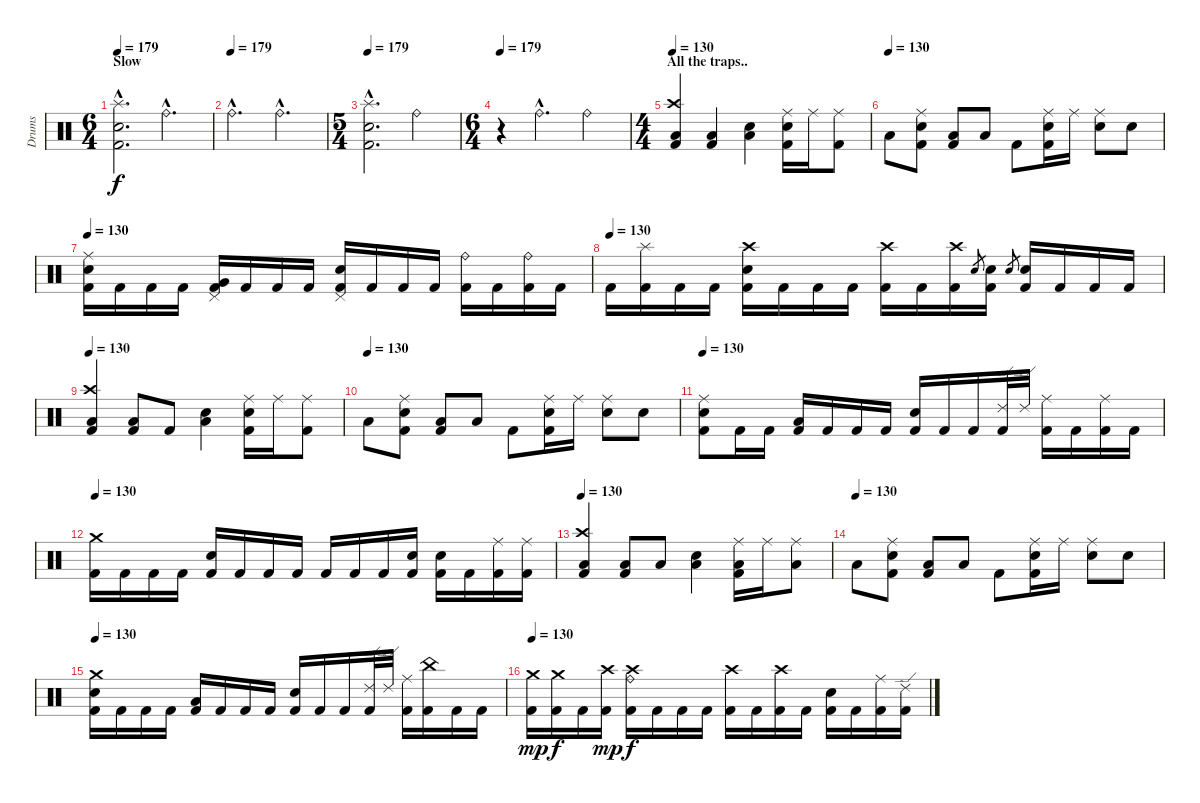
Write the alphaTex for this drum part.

\track ("Drums" "Drums") {instrument percussion}
\staff {score}
\articulation defaults
\ts (6 4)
\section ("" "Slow")
\tempo 179
\clef neutral
\ks c
("Splash (hit)"{hac} "Kick (hit) 2"{hac} "Electric Snare (hit)"{hac}).2{d dy f} "Ride (bell)"{hac}.2{d} |
\tempo (179)
"Ride (bell)"{hac}.2{d} "Ride (bell)"{hac}.2{d} |
\ts (5 4)
\tempo 179
("Splash (hit)"{hac} "Kick (hit) 2"{hac} "Electric Snare (hit)"{hac}).2{d} "Ride (bell)".2 |
\ts (6 4)
\tempo 179
r.4 "Ride (bell)"{hac}.2{d} "Ride (bell)".2 |
\ts (4 4)
\section ("" "All the traps..")
\tempo 130
("Crash high (hit)" "Low Floor Tom (hit)" "Kick (hit) 2").4 ("Low Floor Tom (hit)" "Kick (hit) 2").4 ("Electric Snare (hit)" "Low Floor Tom (hit)").4 ("Ride (middle)" "Electric Snare (hit)" "Kick (hit) 2").16 "Ride (middle)".16 ("Ride (middle)" "Kick (hit) 2").8 |
\tempo (130)
"Low Floor Tom (hit)".8 ("Ride (middle)" "Electric Snare (hit)" "Kick (hit) 2").8 ("Low Floor Tom (hit)" "Kick (hit) 2").8 "Low Floor Tom (hit)".8 "Kick (hit) 2".8 ("Ride (middle)" "Electric Snare (hit)" "Kick (hit) 2").16 "Ride (middle)".16 ("Ride (middle)" "Electric Snare (hit)").8 "Electric Snare (hit)".8 |
\tempo 130
("Ride (middle)" "Electric Snare (hit)" "Kick (hit) 2").16 "Kick (hit) 2".16 "Kick (hit) 2".16 "Kick (hit) 2".16 ("Pedal Hi-Hat (hit)" "Very Low Tom (hit)" "Kick (hit) 2").16 "Kick (hit) 2".16 "Kick (hit) 2".16 "Kick (hit) 2".16 ("Pedal Hi-Hat (hit)" "Electric Snare (hit)" "Kick (hit) 2").16 "Kick (hit) 2".16 "Kick (hit) 2".16 "Kick (hit) 2".16 ("Ride (bell)" "Kick (hit) 2").16 "Kick (hit) 2".16 ("Ride (bell)" "Kick (hit) 2").16 "Kick (hit) 2".16 |
\tempo (130)
"Kick (hit) 2".16 ("Splash (hit)" "Kick (hit) 2").16 "Kick (hit) 2".16 "Kick (hit) 2".16 ("Electric Snare (hit)" "Crash high (hit)" "Kick (hit) 2").16 "Kick (hit) 2".16 "Kick (hit) 2".16 "Kick (hit) 2".16 ("Crash high (hit)" "Kick (hit) 2").16 "Kick (hit) 2".16 ("Crash high (hit)" "Kick (hit) 2").16 "Electric Snare (hit)".8{gr} ("Electric Snare (hit)" "Kick (hit) 2").16 "Electric Snare (hit)".8{gr} ("Electric Snare (hit)" "Kick (hit) 2").16 "Kick (hit) 2".16 "Kick (hit) 2".16 "Kick (hit) 2".16 |
\tempo 130
("Crash high (hit)" "Low Floor Tom (hit)" "Kick (hit) 2").4 ("Low Floor Tom (hit)" "Kick (hit) 2").8 "Kick (hit) 2".8 ("Electric Snare (hit)" "Low Floor Tom (hit)").4 ("Ride (middle)" "Electric Snare (hit)" "Kick (hit) 2").16 "Ride (middle)".16 ("Ride (middle)" "Kick (hit) 2").8 |
\tempo (130)
"Low Floor Tom (hit)".8 ("Ride (middle)" "Electric Snare (hit)" "Kick (hit) 2").8 ("Low Floor Tom (hit)" "Kick (hit) 2").8 "Low Floor Tom (hit)".8 "Kick (hit) 2".8 ("Ride (middle)" "Electric Snare (hit)" "Kick (hit) 2").16 "Ride (middle)".16 ("Ride (middle)" "Electric Snare (hit)").8 "Electric Snare (hit)".8 |
\tempo 130
("Ride (middle)" "Electric Snare (hit)" "Kick (hit) 2").8 "Kick (hit) 2".16 "Kick (hit) 2".16 ("Low Tom (hit)" "Kick (hit) 2").16 "Kick (hit) 2".16 "Kick (hit) 2".16 "Kick (hit) 2".16 ("Electric Snare (hit)" "Kick (hit) 2").16 "Kick (hit) 2".16 "Kick (hit) 2".16 ("Ride (edge) 2" "Kick (hit) 2").32 "Ride (edge) 2".32 ("Ride (middle)" "Kick (hit) 2").16 "Kick (hit) 2".16 ("Ride (middle)" "Kick (hit) 2").16 "Kick (hit) 2".16 |
\tempo 130
("Crash medium (hit)" "Kick (hit) 2").16 "Kick (hit) 2".16 "Kick (hit) 2".16 "Kick (hit) 2".16 ("Electric Snare (hit)" "Kick (hit) 2").16 "Kick (hit) 2".16 "Kick (hit) 2".16 "Kick (hit) 2".16 "Kick (hit) 2".16 "Kick (hit) 2".16 "Kick (hit) 2".16 ("Electric Snare (hit)" "Kick (hit) 2").16 ("Electric Snare (hit)" "Kick (hit) 2").16 "Kick (hit) 2".16 ("Ride (middle)" "Kick (hit) 2").16 ("Ride (middle)" "Kick (hit) 2").16 |
\tempo 130
("Crash high (hit)" "Low Floor Tom (hit)" "Kick (hit) 2").4 ("Low Floor Tom (hit)" "Kick (hit) 2").8 "Low Floor Tom (hit)".8 ("Electric Snare (hit)" "Low Floor Tom (hit)").4 ("Ride (middle)" "Low Floor Tom (hit)" "Kick (hit) 2").16 "Ride (middle)".16 ("Ride (middle)" "Low Floor Tom (hit)").8 |
\tempo (130)
"Low Floor Tom (hit)".8 ("Ride (middle)" "Electric Snare (hit)" "Kick (hit) 2").8 ("Low Floor Tom (hit)" "Kick (hit) 2").8 "Low Floor Tom (hit)".8 "Kick (hit) 2".8 ("Ride (middle)" "Electric Snare (hit)" "Kick (hit) 2").16 "Ride (middle)".16 ("Ride (middle)" "Electric Snare (hit)").8 "Electric Snare (hit)".8 |
\tempo 130
("Crash medium (hit)" "Electric Snare (hit)" "Kick (hit) 2").16 "Kick (hit) 2".16 "Kick (hit) 2".16 "Kick (hit) 2".16 ("Low Tom (hit)" "Kick (hit) 2").16 "Kick (hit) 2".16 "Kick (hit) 2".16 "Kick (hit) 2".16 ("Electric Snare (hit)" "Kick (hit) 2").16 "Kick (hit) 2".16 "Kick (hit) 2".16 ("Ride (edge) 2" "Kick (hit) 2").32 "Ride (edge) 2".32 ("Ride (middle)" "Kick (hit) 2").16 ("China (hit)" "Kick (hit) 2").16 "Kick (hit) 2".16 "Kick (hit) 2".16 |
\tempo 130
("Crash medium (hit)" "Kick (hit) 2").16{dy mp} ("Crash medium (hit)" "Kick (hit) 2").16{dy f} "Kick (hit) 2".16 ("Crash high (hit)" "Kick (hit) 2").16{dy mp} ("Crash high (hit)" "Ride (bell)" "Kick (hit) 2").16{dy f} "Kick (hit) 2".16 "Kick (hit) 2".16 "Kick (hit) 2".16 ("Crash high (hit)" "Kick (hit) 2").16 "Kick (hit) 2".16 ("Crash high (hit)" "Kick (hit) 2").16 "Kick (hit) 2".16 ("Electric Snare (hit)" "Kick (hit) 2").16 "Kick (hit) 2".16 ("Ride (middle)" "Kick (hit) 2").16 ("Ride (edge) 2" "Kick (hit) 2").16
